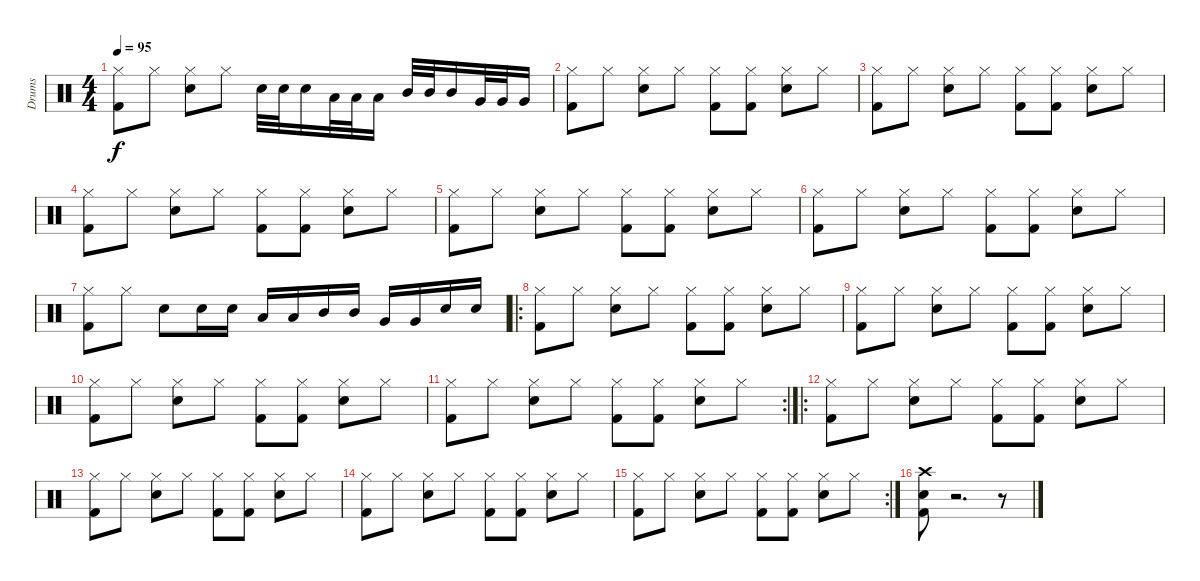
\track ("Drums" "Drums") {instrument percussion}
\staff {score}
\articulation defaults
\ts (4 4)
\tempo 95
\clef neutral
\ks c
("Kick (hit) 2" "Hi-Hat (closed)").8{dy f} "Hi-Hat (closed)".8 ("Electric Snare (hit)" "Hi-Hat (closed)").8 "Hi-Hat (closed)".8 "Electric Snare (hit)".32 "Electric Snare (hit)".32 "Electric Snare (hit)".16 "Low Tom (hit)".32 "Low Tom (hit)".32 "Low Tom (hit)".16 "Mid Tom (hit)".32 "Mid Tom (hit)".32 "Mid Tom (hit)".16 "Very Low Tom (hit)".32 "Very Low Tom (hit)".32 "Very Low Tom (hit)".16 |
("Kick (hit) 2" "Hi-Hat (closed)").8 "Hi-Hat (closed)".8 ("Electric Snare (hit)" "Hi-Hat (closed)").8 "Hi-Hat (closed)".8 ("Kick (hit) 2" "Hi-Hat (closed)").8 ("Kick (hit) 2" "Hi-Hat (closed)").8 ("Electric Snare (hit)" "Hi-Hat (closed)").8 "Hi-Hat (closed)".8 |
("Kick (hit) 2" "Hi-Hat (closed)").8 "Hi-Hat (closed)".8 ("Electric Snare (hit)" "Hi-Hat (closed)").8 "Hi-Hat (closed)".8 ("Kick (hit) 2" "Hi-Hat (closed)").8 ("Kick (hit) 2" "Hi-Hat (closed)").8 ("Electric Snare (hit)" "Hi-Hat (closed)").8 "Hi-Hat (closed)".8 |
("Kick (hit) 2" "Hi-Hat (closed)").8 "Hi-Hat (closed)".8 ("Electric Snare (hit)" "Hi-Hat (closed)").8 "Hi-Hat (closed)".8 ("Kick (hit) 2" "Hi-Hat (closed)").8 ("Kick (hit) 2" "Hi-Hat (closed)").8 ("Electric Snare (hit)" "Hi-Hat (closed)").8 "Hi-Hat (closed)".8 |
("Kick (hit) 2" "Hi-Hat (closed)").8 "Hi-Hat (closed)".8 ("Electric Snare (hit)" "Hi-Hat (closed)").8 "Hi-Hat (closed)".8 ("Kick (hit) 2" "Hi-Hat (closed)").8 ("Kick (hit) 2" "Hi-Hat (closed)").8 ("Electric Snare (hit)" "Hi-Hat (closed)").8 "Hi-Hat (closed)".8 |
("Kick (hit) 2" "Hi-Hat (closed)").8 "Hi-Hat (closed)".8 ("Electric Snare (hit)" "Hi-Hat (closed)").8 "Hi-Hat (closed)".8 ("Kick (hit) 2" "Hi-Hat (closed)").8 ("Kick (hit) 2" "Hi-Hat (closed)").8 ("Electric Snare (hit)" "Hi-Hat (closed)").8 "Hi-Hat (closed)".8 |
("Kick (hit) 2" "Hi-Hat (closed)").8 "Hi-Hat (closed)".8 "Electric Snare (hit)".8 "Electric Snare (hit)".16 "Electric Snare (hit)".16 "Low Tom (hit)".16 "Low Tom (hit)".16 "Mid Tom (hit)".16 "Mid Tom (hit)".16 "Very Low Tom (hit)".16 "Very Low Tom (hit)".16 "Electric Snare (hit)".16 "Electric Snare (hit)".16 |
\ro
("Kick (hit) 2" "Hi-Hat (closed)").8 "Hi-Hat (closed)".8 ("Electric Snare (hit)" "Hi-Hat (closed)").8 "Hi-Hat (closed)".8 ("Kick (hit) 2" "Hi-Hat (closed)").8 ("Kick (hit) 2" "Hi-Hat (closed)").8 ("Electric Snare (hit)" "Hi-Hat (closed)").8 "Hi-Hat (closed)".8 |
("Kick (hit) 2" "Hi-Hat (closed)").8 "Hi-Hat (closed)".8 ("Electric Snare (hit)" "Hi-Hat (closed)").8 "Hi-Hat (closed)".8 ("Kick (hit) 2" "Hi-Hat (closed)").8 ("Kick (hit) 2" "Hi-Hat (closed)").8 ("Electric Snare (hit)" "Hi-Hat (closed)").8 "Hi-Hat (closed)".8 |
("Kick (hit) 2" "Hi-Hat (closed)").8 "Hi-Hat (closed)".8 ("Electric Snare (hit)" "Hi-Hat (closed)").8 "Hi-Hat (closed)".8 ("Kick (hit) 2" "Hi-Hat (closed)").8 ("Kick (hit) 2" "Hi-Hat (closed)").8 ("Electric Snare (hit)" "Hi-Hat (closed)").8 "Hi-Hat (closed)".8 |
\rc 2
("Kick (hit) 2" "Hi-Hat (closed)").8 "Hi-Hat (closed)".8 ("Electric Snare (hit)" "Hi-Hat (closed)").8 "Hi-Hat (closed)".8 ("Kick (hit) 2" "Hi-Hat (closed)").8 ("Kick (hit) 2" "Hi-Hat (closed)").8 ("Electric Snare (hit)" "Hi-Hat (closed)").8 "Hi-Hat (closed)".8 |
\ro
("Kick (hit) 2" "Hi-Hat (closed)").8 "Hi-Hat (closed)".8 ("Electric Snare (hit)" "Hi-Hat (closed)").8 "Hi-Hat (closed)".8 ("Kick (hit) 2" "Hi-Hat (closed)").8 ("Kick (hit) 2" "Hi-Hat (closed)").8 ("Electric Snare (hit)" "Hi-Hat (closed)").8 "Hi-Hat (closed)".8 |
("Kick (hit) 2" "Hi-Hat (closed)").8 "Hi-Hat (closed)".8 ("Electric Snare (hit)" "Hi-Hat (closed)").8 "Hi-Hat (closed)".8 ("Kick (hit) 2" "Hi-Hat (closed)").8 ("Kick (hit) 2" "Hi-Hat (closed)").8 ("Electric Snare (hit)" "Hi-Hat (closed)").8 "Hi-Hat (closed)".8 |
("Kick (hit) 2" "Hi-Hat (closed)").8 "Hi-Hat (closed)".8 ("Electric Snare (hit)" "Hi-Hat (closed)").8 "Hi-Hat (closed)".8 ("Kick (hit) 2" "Hi-Hat (closed)").8 ("Kick (hit) 2" "Hi-Hat (closed)").8 ("Electric Snare (hit)" "Hi-Hat (closed)").8 "Hi-Hat (closed)".8 |
\rc 2
("Kick (hit) 2" "Hi-Hat (closed)").8 "Hi-Hat (closed)".8 ("Electric Snare (hit)" "Hi-Hat (closed)").8 "Hi-Hat (closed)".8 ("Kick (hit) 2" "Hi-Hat (closed)").8 ("Kick (hit) 2" "Hi-Hat (closed)").8 ("Electric Snare (hit)" "Hi-Hat (closed)").8 "Hi-Hat (closed)".8 |
("Kick (hit) 2" "Electric Snare (hit)" "Crash high (hit)").8 r.2{d} r.8
